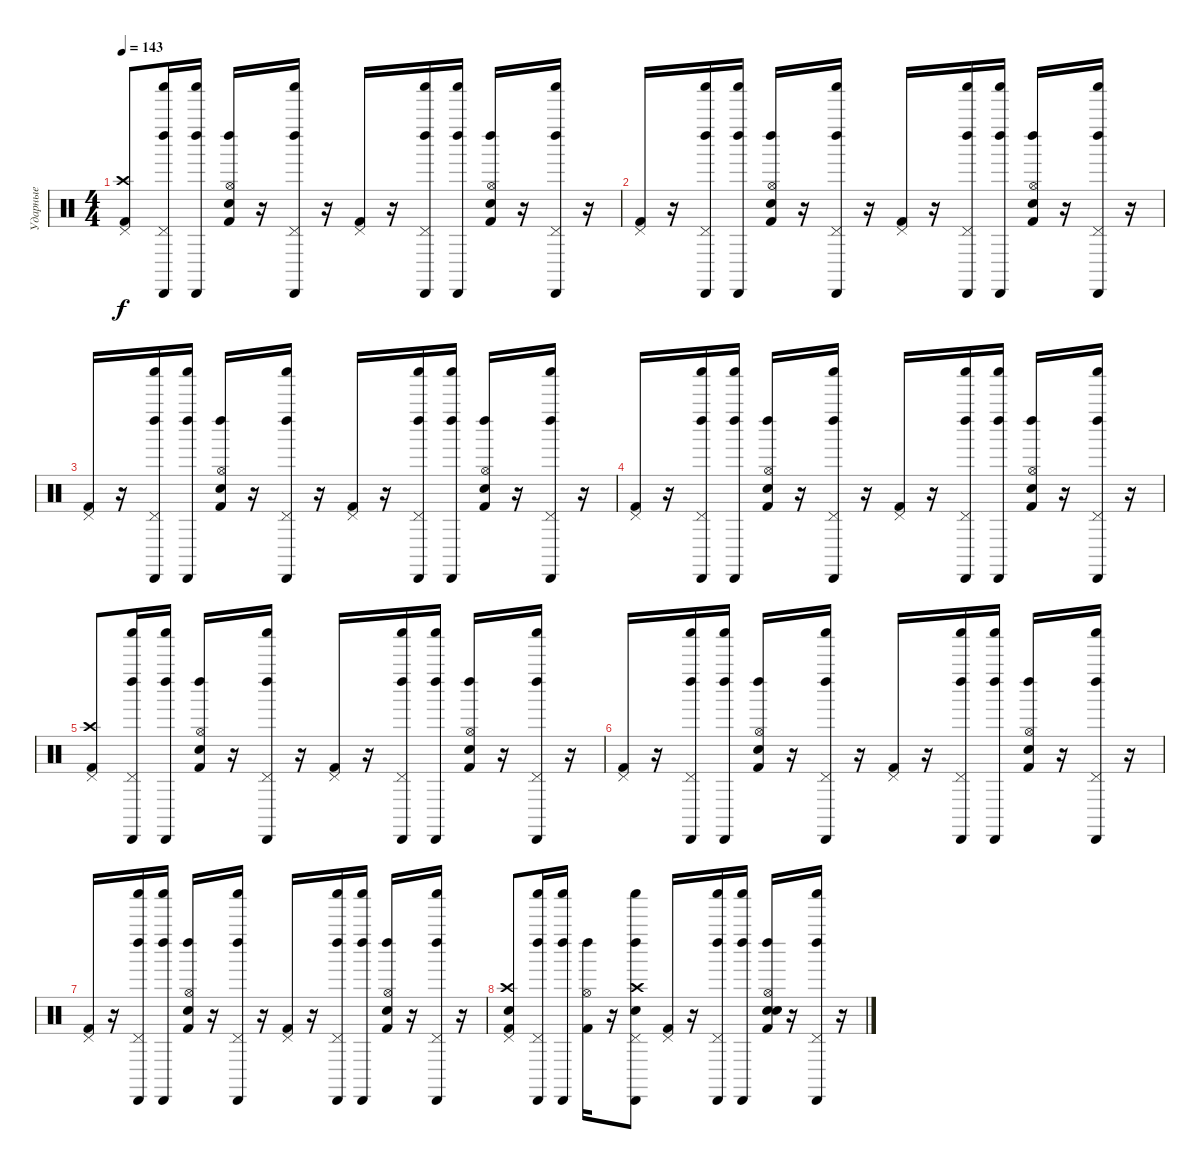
\track ("Ударные" "Ударные") {instrument percussion}
\staff {score}
\articulation defaults
\ts (4 4)
\tempo 143
\clef neutral
\ks c
("Crash high (hit)" "Kick (hit) 2" "Pedal Hi-Hat (hit)").8{dy f} ("Pedal Hi-Hat (hit)" "Left Maraca (hit)" "Shaker (hit)" "Cabasa (hit)").16 ("Left Maraca (hit)" "Shaker (hit)" "Cabasa (hit)").16 ("Kick (hit) 2" "Snare (hit) 2" "Hi-Hat (open)" "Left Maraca (hit)").16 r.16 ("Pedal Hi-Hat (hit)" "Left Maraca (hit)" "Shaker (hit)" "Cabasa (hit)").16 r.16 ("Kick (hit) 2" "Pedal Hi-Hat (hit)").16 r.16 ("Pedal Hi-Hat (hit)" "Left Maraca (hit)" "Shaker (hit)" "Cabasa (hit)").16 ("Left Maraca (hit)" "Shaker (hit)" "Cabasa (hit)").16 ("Kick (hit) 2" "Snare (hit) 2" "Hi-Hat (open)" "Left Maraca (hit)").16 r.16 ("Pedal Hi-Hat (hit)" "Left Maraca (hit)" "Shaker (hit)" "Cabasa (hit)").16 r.16 |
("Kick (hit) 2" "Pedal Hi-Hat (hit)").16 r.16 ("Pedal Hi-Hat (hit)" "Left Maraca (hit)" "Shaker (hit)" "Cabasa (hit)").16 ("Left Maraca (hit)" "Shaker (hit)" "Cabasa (hit)").16 ("Snare (hit) 2" "Kick (hit) 2" "Hi-Hat (open)" "Left Maraca (hit)").16 r.16 ("Pedal Hi-Hat (hit)" "Left Maraca (hit)" "Shaker (hit)" "Cabasa (hit)").16 r.16 ("Kick (hit) 2" "Pedal Hi-Hat (hit)").16 r.16 ("Pedal Hi-Hat (hit)" "Left Maraca (hit)" "Shaker (hit)" "Cabasa (hit)").16 ("Left Maraca (hit)" "Shaker (hit)" "Cabasa (hit)").16 ("Snare (hit) 2" "Kick (hit) 2" "Hi-Hat (open)" "Left Maraca (hit)").16 r.16 ("Pedal Hi-Hat (hit)" "Left Maraca (hit)" "Shaker (hit)" "Cabasa (hit)").16 r.16 |
("Kick (hit) 2" "Pedal Hi-Hat (hit)").16 r.16 ("Pedal Hi-Hat (hit)" "Left Maraca (hit)" "Shaker (hit)" "Cabasa (hit)").16 ("Left Maraca (hit)" "Shaker (hit)" "Cabasa (hit)").16 ("Snare (hit) 2" "Kick (hit) 2" "Hi-Hat (open)" "Left Maraca (hit)").16 r.16 ("Pedal Hi-Hat (hit)" "Left Maraca (hit)" "Shaker (hit)" "Cabasa (hit)").16 r.16 ("Kick (hit) 2" "Pedal Hi-Hat (hit)").16 r.16 ("Pedal Hi-Hat (hit)" "Left Maraca (hit)" "Shaker (hit)" "Cabasa (hit)").16 ("Left Maraca (hit)" "Shaker (hit)" "Cabasa (hit)").16 ("Kick (hit) 2" "Snare (hit) 2" "Hi-Hat (open)" "Left Maraca (hit)").16 r.16 ("Pedal Hi-Hat (hit)" "Left Maraca (hit)" "Shaker (hit)" "Cabasa (hit)").16 r.16 |
("Kick (hit) 2" "Pedal Hi-Hat (hit)").16 r.16 ("Pedal Hi-Hat (hit)" "Left Maraca (hit)" "Shaker (hit)" "Cabasa (hit)").16 ("Left Maraca (hit)" "Shaker (hit)" "Cabasa (hit)").16 ("Kick (hit) 2" "Snare (hit) 2" "Hi-Hat (open)" "Left Maraca (hit)").16 r.16 ("Pedal Hi-Hat (hit)" "Left Maraca (hit)" "Shaker (hit)" "Cabasa (hit)").16 r.16 ("Kick (hit) 2" "Pedal Hi-Hat (hit)").16 r.16 ("Pedal Hi-Hat (hit)" "Left Maraca (hit)" "Shaker (hit)" "Cabasa (hit)").16 ("Left Maraca (hit)" "Shaker (hit)" "Cabasa (hit)").16 ("Snare (hit) 2" "Kick (hit) 2" "Hi-Hat (open)" "Left Maraca (hit)").16 r.16 ("Pedal Hi-Hat (hit)" "Left Maraca (hit)" "Shaker (hit)" "Cabasa (hit)").16 r.16 |
("Kick (hit) 2" "Crash high (hit)" "Pedal Hi-Hat (hit)").8 ("Pedal Hi-Hat (hit)" "Left Maraca (hit)" "Shaker (hit)" "Cabasa (hit)").16 ("Left Maraca (hit)" "Shaker (hit)" "Cabasa (hit)").16 ("Snare (hit) 2" "Kick (hit) 2" "Hi-Hat (open)" "Left Maraca (hit)").16 r.16 ("Pedal Hi-Hat (hit)" "Left Maraca (hit)" "Shaker (hit)" "Cabasa (hit)").16 r.16 ("Kick (hit) 2" "Pedal Hi-Hat (hit)").16 r.16 ("Pedal Hi-Hat (hit)" "Left Maraca (hit)" "Shaker (hit)" "Cabasa (hit)").16 ("Left Maraca (hit)" "Shaker (hit)" "Cabasa (hit)").16 ("Kick (hit) 2" "Snare (hit) 2" "Hi-Hat (open)" "Left Maraca (hit)").16 r.16 ("Pedal Hi-Hat (hit)" "Left Maraca (hit)" "Shaker (hit)" "Cabasa (hit)").16 r.16 |
("Kick (hit) 2" "Pedal Hi-Hat (hit)").16 r.16 ("Pedal Hi-Hat (hit)" "Left Maraca (hit)" "Shaker (hit)" "Cabasa (hit)").16 ("Left Maraca (hit)" "Shaker (hit)" "Cabasa (hit)").16 ("Kick (hit) 2" "Snare (hit) 2" "Hi-Hat (open)" "Left Maraca (hit)").16 r.16 ("Pedal Hi-Hat (hit)" "Left Maraca (hit)" "Shaker (hit)" "Cabasa (hit)").16 r.16 ("Kick (hit) 2" "Pedal Hi-Hat (hit)").16 r.16 ("Pedal Hi-Hat (hit)" "Left Maraca (hit)" "Shaker (hit)" "Cabasa (hit)").16 ("Left Maraca (hit)" "Shaker (hit)" "Cabasa (hit)").16 ("Snare (hit) 2" "Kick (hit) 2" "Hi-Hat (open)" "Left Maraca (hit)").16 r.16 ("Pedal Hi-Hat (hit)" "Left Maraca (hit)" "Shaker (hit)" "Cabasa (hit)").16 r.16 |
("Kick (hit) 2" "Pedal Hi-Hat (hit)").16 r.16 ("Pedal Hi-Hat (hit)" "Left Maraca (hit)" "Shaker (hit)" "Cabasa (hit)").16 ("Left Maraca (hit)" "Shaker (hit)" "Cabasa (hit)").16 ("Snare (hit) 2" "Kick (hit) 2" "Hi-Hat (open)" "Left Maraca (hit)").16 r.16 ("Pedal Hi-Hat (hit)" "Left Maraca (hit)" "Shaker (hit)" "Cabasa (hit)").16 r.16 ("Kick (hit) 2" "Pedal Hi-Hat (hit)").16 r.16 ("Pedal Hi-Hat (hit)" "Left Maraca (hit)" "Shaker (hit)" "Cabasa (hit)").16 ("Left Maraca (hit)" "Shaker (hit)" "Cabasa (hit)").16 ("Kick (hit) 2" "Snare (hit) 2" "Hi-Hat (open)" "Left Maraca (hit)").16 r.16 ("Pedal Hi-Hat (hit)" "Left Maraca (hit)" "Shaker (hit)" "Cabasa (hit)").16 r.16 |
("Crash high (hit)" "Snare (hit) 2" "Kick (hit) 2" "Pedal Hi-Hat (hit)").8 ("Pedal Hi-Hat (hit)" "Left Maraca (hit)" "Shaker (hit)" "Cabasa (hit)").16 ("Left Maraca (hit)" "Shaker (hit)" "Cabasa (hit)").16 ("Kick (hit) 2" "Hi-Hat (open)" "Left Maraca (hit)").16 r.16 ("Snare (hit) 2" "Crash high (hit)" "Pedal Hi-Hat (hit)" "Left Maraca (hit)" "Shaker (hit)" "Cabasa (hit)").8 ("Kick (hit) 2" "Pedal Hi-Hat (hit)").16 r.16 ("Pedal Hi-Hat (hit)" "Left Maraca (hit)" "Shaker (hit)" "Cabasa (hit)").16 ("Left Maraca (hit)" "Shaker (hit)" "Cabasa (hit)").16 ("Snare (hit) 2" "Electric Snare (hit)" "Kick (hit) 2" "Hi-Hat (open)" "Left Maraca (hit)").16 r.16 ("Pedal Hi-Hat (hit)" "Left Maraca (hit)" "Shaker (hit)" "Cabasa (hit)").16 r.16
